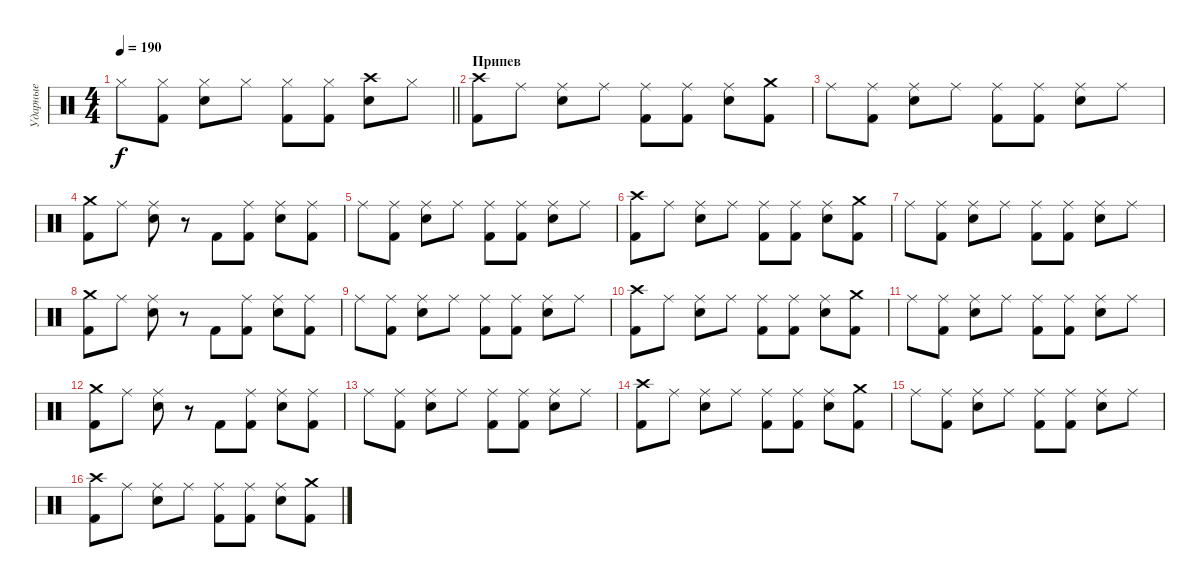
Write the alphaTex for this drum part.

\track ("Ударные" "Ударные") {instrument percussion}
\staff {score}
\articulation defaults
\ts (4 4)
\tempo 190
\clef neutral
\barLineRight lightlight
\ks c "Hi-Hat (closed)".8{dy f}
("Hi-Hat (closed)" "Kick (hit) 2").8 ("Hi-Hat (closed)" "Electric Snare (hit)").8 "Hi-Hat (closed)".8 ("Hi-Hat (closed)" "Kick (hit) 2").8 ("Hi-Hat (closed)" "Kick (hit) 2").8 ("Crash high (hit)" "Electric Snare (hit)").8 "Hi-Hat (closed)".8 |
\section ("" "Припев")
("Crash high (hit)" "Kick (hit) 2").8 "Ride (middle)".8 ("Ride (middle)" "Electric Snare (hit)").8 "Ride (middle)".8 ("Ride (middle)" "Kick (hit) 2").8 ("Ride (middle)" "Kick (hit) 2").8 ("Ride (middle)" "Electric Snare (hit)").8 ("Crash medium (hit)" "Kick (hit) 2").8 |
"Ride (middle)".8 ("Ride (middle)" "Kick (hit) 2").8 ("Ride (middle)" "Electric Snare (hit)").8 "Ride (middle)".8 ("Ride (middle)" "Kick (hit) 2").8 ("Ride (middle)" "Kick (hit) 2").8 ("Ride (middle)" "Electric Snare (hit)").8 "Ride (middle)".8 |
("Crash medium (hit)" "Kick (hit) 2").8 "Ride (middle)".8 ("Ride (middle)" "Electric Snare (hit)").8 r.8 "Kick (hit) 2".8 ("Ride (middle)" "Kick (hit) 2").8 ("Ride (middle)" "Electric Snare (hit)").8 ("Ride (middle)" "Kick (hit) 2").8 |
"Ride (middle)".8 ("Ride (middle)" "Kick (hit) 2").8 ("Ride (middle)" "Electric Snare (hit)").8 "Ride (middle)".8 ("Ride (middle)" "Kick (hit) 2").8 ("Ride (middle)" "Kick (hit) 2").8 ("Ride (middle)" "Electric Snare (hit)").8 "Ride (middle)".8 |
("Crash high (hit)" "Kick (hit) 2").8 "Ride (middle)".8 ("Ride (middle)" "Electric Snare (hit)").8 "Ride (middle)".8 ("Ride (middle)" "Kick (hit) 2").8 ("Ride (middle)" "Kick (hit) 2").8 ("Ride (middle)" "Electric Snare (hit)").8 ("Crash medium (hit)" "Kick (hit) 2").8 |
"Ride (middle)".8 ("Ride (middle)" "Kick (hit) 2").8 ("Ride (middle)" "Electric Snare (hit)").8 "Ride (middle)".8 ("Ride (middle)" "Kick (hit) 2").8 ("Ride (middle)" "Kick (hit) 2").8 ("Ride (middle)" "Electric Snare (hit)").8 "Ride (middle)".8 |
("Crash medium (hit)" "Kick (hit) 2").8 "Ride (middle)".8 ("Ride (middle)" "Electric Snare (hit)").8 r.8 "Kick (hit) 2".8 ("Ride (middle)" "Kick (hit) 2").8 ("Ride (middle)" "Electric Snare (hit)").8 ("Ride (middle)" "Kick (hit) 2").8 |
"Ride (middle)".8 ("Ride (middle)" "Kick (hit) 2").8 ("Ride (middle)" "Electric Snare (hit)").8 "Ride (middle)".8 ("Ride (middle)" "Kick (hit) 2").8 ("Ride (middle)" "Kick (hit) 2").8 ("Ride (middle)" "Electric Snare (hit)").8 "Ride (middle)".8 |
("Crash high (hit)" "Kick (hit) 2").8 "Ride (middle)".8 ("Ride (middle)" "Electric Snare (hit)").8 "Ride (middle)".8 ("Ride (middle)" "Kick (hit) 2").8 ("Ride (middle)" "Kick (hit) 2").8 ("Ride (middle)" "Electric Snare (hit)").8 ("Crash medium (hit)" "Kick (hit) 2").8 |
"Ride (middle)".8 ("Ride (middle)" "Kick (hit) 2").8 ("Ride (middle)" "Electric Snare (hit)").8 "Ride (middle)".8 ("Ride (middle)" "Kick (hit) 2").8 ("Ride (middle)" "Kick (hit) 2").8 ("Ride (middle)" "Electric Snare (hit)").8 "Ride (middle)".8 |
("Crash medium (hit)" "Kick (hit) 2").8 "Ride (middle)".8 ("Ride (middle)" "Electric Snare (hit)").8 r.8 "Kick (hit) 2".8 ("Ride (middle)" "Kick (hit) 2").8 ("Ride (middle)" "Electric Snare (hit)").8 ("Ride (middle)" "Kick (hit) 2").8 |
"Ride (middle)".8 ("Ride (middle)" "Kick (hit) 2").8 ("Ride (middle)" "Electric Snare (hit)").8 "Ride (middle)".8 ("Ride (middle)" "Kick (hit) 2").8 ("Ride (middle)" "Kick (hit) 2").8 ("Ride (middle)" "Electric Snare (hit)").8 "Ride (middle)".8 |
("Crash high (hit)" "Kick (hit) 2").8 "Ride (middle)".8 ("Ride (middle)" "Electric Snare (hit)").8 "Ride (middle)".8 ("Ride (middle)" "Kick (hit) 2").8 ("Ride (middle)" "Kick (hit) 2").8 ("Ride (middle)" "Electric Snare (hit)").8 ("Crash medium (hit)" "Kick (hit) 2").8 |
"Ride (middle)".8 ("Ride (middle)" "Kick (hit) 2").8 ("Ride (middle)" "Electric Snare (hit)").8 "Ride (middle)".8 ("Ride (middle)" "Kick (hit) 2").8 ("Ride (middle)" "Kick (hit) 2").8 ("Ride (middle)" "Electric Snare (hit)").8 "Ride (middle)".8 |
("Crash high (hit)" "Kick (hit) 2").8 "Ride (middle)".8 ("Ride (middle)" "Electric Snare (hit)").8 "Ride (middle)".8 ("Ride (middle)" "Kick (hit) 2").8 ("Ride (middle)" "Kick (hit) 2").8 ("Ride (middle)" "Electric Snare (hit)").8 ("Crash medium (hit)" "Kick (hit) 2").8
